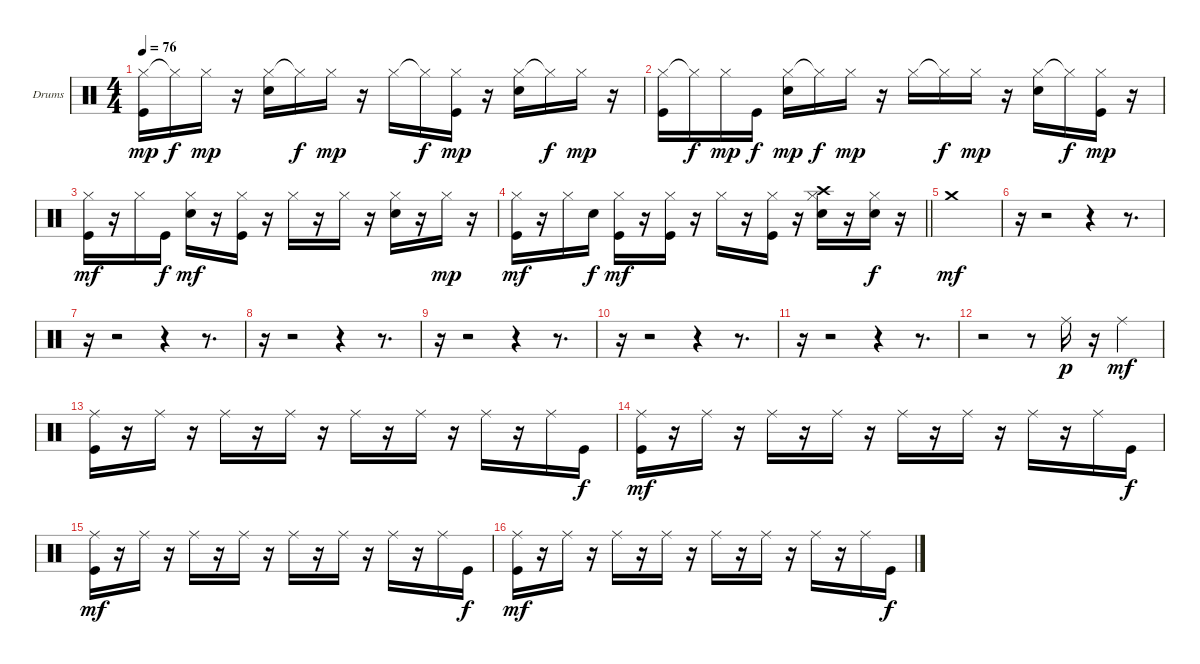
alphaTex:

\bracketExtendMode groupsimilarinstruments
\firstSystemTrackNameOrientation horizontal
\otherSystemsTrackNameOrientation horizontal
\track ("Drumkit" "Drums") {instrument percussion}
\staff {score}
\articulation defaults
\ts (4 4)
\tempo 76
\clef neutral
\ks c
("Hi-Hat (closed)" "Kick (hit)").16{dy mp} "Hi-Hat (closed)"{t}.16{dy f} "Hi-Hat (closed)".16{dy mp} r.16 ("Hi-Hat (closed)" "Snare (hit) 2").16 "Hi-Hat (closed)"{t}.16{dy f} "Hi-Hat (closed)".16{dy mp} r.16 "Hi-Hat (closed)".16 "Hi-Hat (closed)"{t}.16{dy f} ("Hi-Hat (closed)" "Kick (hit)").16{dy mp} r.16 ("Hi-Hat (closed)" "Snare (hit) 2").16 "Hi-Hat (closed)"{t}.16{dy f} "Hi-Hat (closed)".16{dy mp} r.16 |
("Hi-Hat (closed)" "Kick (hit)").16 "Hi-Hat (closed)"{t}.16{dy f} "Hi-Hat (closed)".16{dy mp} "Kick (hit)".16{dy f} ("Hi-Hat (closed)" "Snare (hit) 2").16{dy mp} "Hi-Hat (closed)"{t}.16{dy f} "Hi-Hat (closed)".16{dy mp} r.16 "Hi-Hat (closed)".16 "Hi-Hat (closed)"{t}.16{dy f} "Hi-Hat (closed)".16{dy mp} r.16 ("Hi-Hat (closed)" "Snare (hit) 2").16 "Hi-Hat (closed)"{t}.16{dy f} ("Hi-Hat (closed)" "Kick (hit)").16{dy mp} r.16 |
("Hi-Hat (closed)" "Kick (hit)").16{dy mf} r.16 "Hi-Hat (closed)".16 "Kick (hit)".16{dy f} ("Hi-Hat (closed)" "Snare (hit) 2").16{dy mf} r.16 ("Hi-Hat (closed)" "Kick (hit)").16 r.16 "Hi-Hat (closed)".16 r.16 "Hi-Hat (closed)".16 r.16 ("Hi-Hat (closed)" "Snare (hit) 2").16 r.16 "Hi-Hat (closed)".16{dy mp} r.16 |
\barLineRight lightlight
("Hi-Hat (closed)" "Kick (hit)").16{dy mf} r.16 "Hi-Hat (closed)".16 "Snare (hit) 2".16{dy f} ("Hi-Hat (closed)" "Kick (hit)").16{dy mf} r.16 ("Hi-Hat (closed)" "Kick (hit)").16 r.16 "Hi-Hat (closed)".16 r.16 ("Hi-Hat (closed)" "Kick (hit)").16 r.16 ("Hi-Hat (closed)" "Crash high (hit)" "Snare (hit) 2").16 r.16 ("Hi-Hat (closed)" "Snare (hit) 2").16{dy f} r.16 |
"Crash medium (hit)".1{dy mf} |
r.16 r.2 r.4 r.8{d} |
r.16 r.2 r.4 r.8{d} |
r.16 r.2 r.4 r.8{d} |
r.16 r.2 r.4 r.8{d} |
r.16 r.2 r.4 r.8{d} |
r.16 r.2 r.4 r.8{d} |
r.2 r.8 "Ride (middle)".16{dy p} r.16 "Ride (middle)".4{dy mf} |
("Ride (middle)" "Kick (hit)").16 r.16 "Ride (middle)".16 r.16 "Ride (middle)".16 r.16 "Ride (middle)".16 r.16 "Ride (middle)".16 r.16 "Ride (middle)".16 r.16 "Ride (middle)".16 r.16 "Ride (middle)".16 "Kick (hit)".16{dy f} |
("Ride (middle)" "Kick (hit)").16{dy mf} r.16 "Ride (middle)".16 r.16 "Ride (middle)".16 r.16 "Ride (middle)".16 r.16 "Ride (middle)".16 r.16 "Ride (middle)".16 r.16 "Ride (middle)".16 r.16 "Ride (middle)".16 "Kick (hit)".16{dy f} |
("Ride (middle)" "Kick (hit)").16{dy mf} r.16 "Ride (middle)".16 r.16 "Ride (middle)".16 r.16 "Ride (middle)".16 r.16 "Ride (middle)".16 r.16 "Ride (middle)".16 r.16 "Ride (middle)".16 r.16 "Ride (middle)".16 "Kick (hit)".16{dy f} |
("Ride (middle)" "Kick (hit)").16{dy mf} r.16 "Ride (middle)".16 r.16 "Ride (middle)".16 r.16 "Ride (middle)".16 r.16 "Ride (middle)".16 r.16 "Ride (middle)".16 r.16 "Ride (middle)".16 r.16 "Ride (middle)".16 "Kick (hit)".16{dy f}
